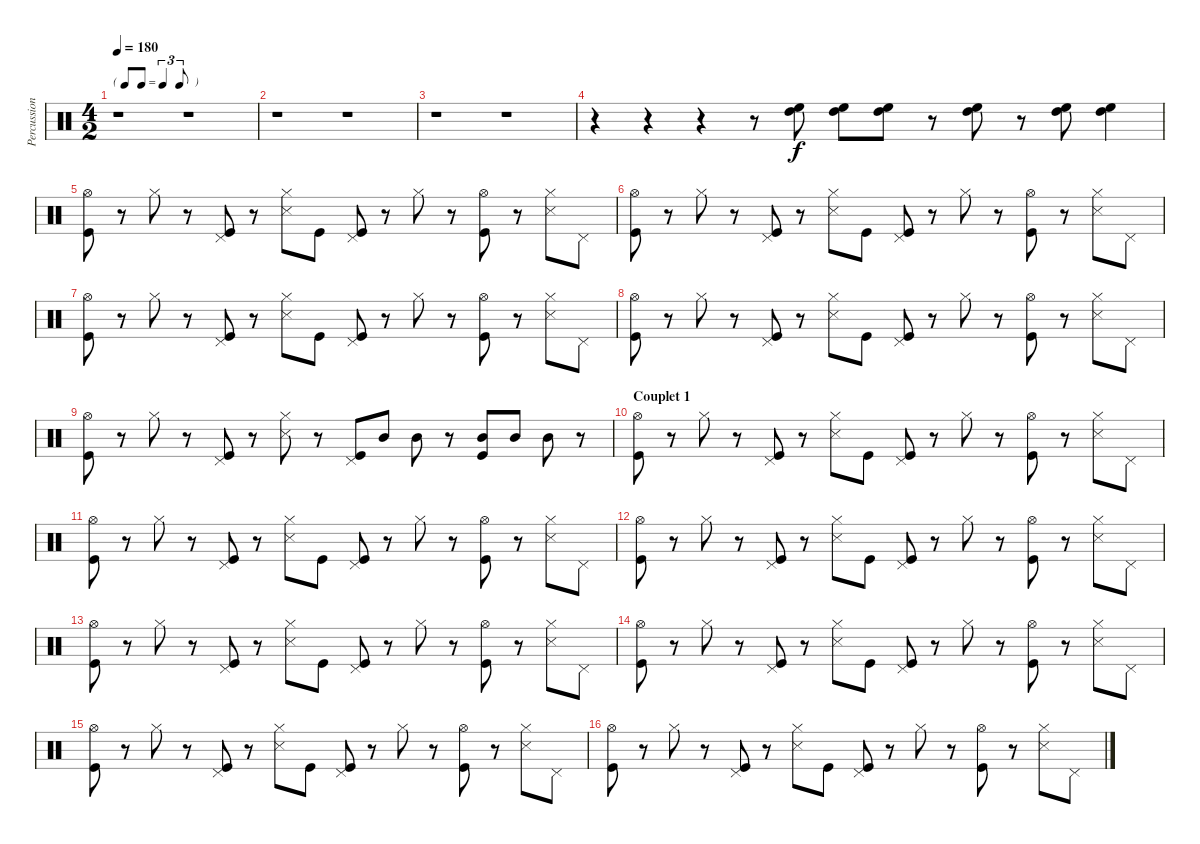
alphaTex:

\track ("Percussion" "Percussion") {instrument percussion}
\staff {score}
\articulation defaults
\ts (4 2)
\tf triplet8th
\tempo 180
\clef neutral
\ks c
r.1{dy f} r.1 |
r.1 r.1 |
r.1 r.1 |
r.4 r.4 r.4 r.8 ("High Floor Tom (hit)" "High Tom (hit)").8 ("High Floor Tom (hit)" "High Tom (hit)").8 ("High Floor Tom (hit)" "High Tom (hit)").8 r.8 ("High Floor Tom (hit)" "High Tom (hit)").8 r.8 ("High Floor Tom (hit)" "High Tom (hit)").8 ("High Floor Tom (hit)" "High Tom (hit)").4 |
("Hi-Hat (open)" "Kick (hit)").8 r.8 "Hi-Hat (closed)".8 r.8 ("Pedal Hi-Hat (hit)" "Kick (hit)").8 r.8 ("Hi-Hat (closed)" "Snare (side stick) 3").8 "Kick (hit)".8 ("Pedal Hi-Hat (hit)" "Kick (hit)").8 r.8 "Hi-Hat (closed)".8 r.8 ("Hi-Hat (open)" "Kick (hit)").8 r.8 ("Hi-Hat (closed)" "Snare (side stick) 3").8 "Pedal Hi-Hat (hit)".8 |
("Hi-Hat (open)" "Kick (hit)").8 r.8 "Hi-Hat (closed)".8 r.8 ("Pedal Hi-Hat (hit)" "Kick (hit)").8 r.8 ("Hi-Hat (closed)" "Snare (side stick) 3").8 "Kick (hit)".8 ("Pedal Hi-Hat (hit)" "Kick (hit)").8 r.8 "Hi-Hat (closed)".8 r.8 ("Hi-Hat (open)" "Kick (hit)").8 r.8 ("Hi-Hat (closed)" "Snare (side stick) 3").8 "Pedal Hi-Hat (hit)".8 |
("Hi-Hat (open)" "Kick (hit)").8 r.8 "Hi-Hat (closed)".8 r.8 ("Pedal Hi-Hat (hit)" "Kick (hit)").8 r.8 ("Hi-Hat (closed)" "Snare (side stick) 3").8 "Kick (hit)".8 ("Pedal Hi-Hat (hit)" "Kick (hit)").8 r.8 "Hi-Hat (closed)".8 r.8 ("Hi-Hat (open)" "Kick (hit)").8 r.8 ("Hi-Hat (closed)" "Snare (side stick) 3").8 "Pedal Hi-Hat (hit)".8 |
("Hi-Hat (open)" "Kick (hit)").8 r.8 "Hi-Hat (closed)".8 r.8 ("Pedal Hi-Hat (hit)" "Kick (hit)").8 r.8 ("Hi-Hat (closed)" "Snare (side stick) 3").8 "Kick (hit)".8 ("Pedal Hi-Hat (hit)" "Kick (hit)").8 r.8 "Hi-Hat (closed)".8 r.8 ("Hi-Hat (open)" "Kick (hit)").8 r.8 ("Hi-Hat (closed)" "Snare (side stick) 3").8 "Pedal Hi-Hat (hit)".8 |
("Hi-Hat (open)" "Kick (hit)").8 r.8 "Hi-Hat (closed)".8 r.8 ("Pedal Hi-Hat (hit)" "Kick (hit)").8 r.8 ("Hi-Hat (closed)" "Snare (side stick) 3").8 r.8 ("Pedal Hi-Hat (hit)" "Kick (hit)").8 "Mid Tom (hit)".8 "Mid Tom (hit)".8 r.8 ("Mid Tom (hit)" "Kick (hit)").8 "Mid Tom (hit)".8 "Mid Tom (hit)".8 r.8 |
\section ("" "Couplet 1")
("Hi-Hat (open)" "Kick (hit)").8 r.8 "Hi-Hat (closed)".8 r.8 ("Pedal Hi-Hat (hit)" "Kick (hit)").8 r.8 ("Hi-Hat (closed)" "Snare (side stick) 3").8 "Kick (hit)".8 ("Pedal Hi-Hat (hit)" "Kick (hit)").8 r.8 "Hi-Hat (closed)".8 r.8 ("Hi-Hat (open)" "Kick (hit)").8 r.8 ("Hi-Hat (closed)" "Snare (side stick) 3").8 "Pedal Hi-Hat (hit)".8 |
("Hi-Hat (open)" "Kick (hit)").8 r.8 "Hi-Hat (closed)".8 r.8 ("Pedal Hi-Hat (hit)" "Kick (hit)").8 r.8 ("Hi-Hat (closed)" "Snare (side stick) 3").8 "Kick (hit)".8 ("Pedal Hi-Hat (hit)" "Kick (hit)").8 r.8 "Hi-Hat (closed)".8 r.8 ("Hi-Hat (open)" "Kick (hit)").8 r.8 ("Hi-Hat (closed)" "Snare (side stick) 3").8 "Pedal Hi-Hat (hit)".8 |
("Hi-Hat (open)" "Kick (hit)").8 r.8 "Hi-Hat (closed)".8 r.8 ("Pedal Hi-Hat (hit)" "Kick (hit)").8 r.8 ("Hi-Hat (closed)" "Snare (side stick) 3").8 "Kick (hit)".8 ("Pedal Hi-Hat (hit)" "Kick (hit)").8 r.8 "Hi-Hat (closed)".8 r.8 ("Hi-Hat (open)" "Kick (hit)").8 r.8 ("Hi-Hat (closed)" "Snare (side stick) 3").8 "Pedal Hi-Hat (hit)".8 |
("Hi-Hat (open)" "Kick (hit)").8 r.8 "Hi-Hat (closed)".8 r.8 ("Pedal Hi-Hat (hit)" "Kick (hit)").8 r.8 ("Hi-Hat (closed)" "Snare (side stick) 3").8 "Kick (hit)".8 ("Pedal Hi-Hat (hit)" "Kick (hit)").8 r.8 "Hi-Hat (closed)".8 r.8 ("Hi-Hat (open)" "Kick (hit)").8 r.8 ("Hi-Hat (closed)" "Snare (side stick) 3").8 "Pedal Hi-Hat (hit)".8 |
("Hi-Hat (open)" "Kick (hit)").8 r.8 "Hi-Hat (closed)".8 r.8 ("Pedal Hi-Hat (hit)" "Kick (hit)").8 r.8 ("Hi-Hat (closed)" "Snare (side stick) 3").8 "Kick (hit)".8 ("Pedal Hi-Hat (hit)" "Kick (hit)").8 r.8 "Hi-Hat (closed)".8 r.8 ("Hi-Hat (open)" "Kick (hit)").8 r.8 ("Hi-Hat (closed)" "Snare (side stick) 3").8 "Pedal Hi-Hat (hit)".8 |
("Hi-Hat (open)" "Kick (hit)").8 r.8 "Hi-Hat (closed)".8 r.8 ("Pedal Hi-Hat (hit)" "Kick (hit)").8 r.8 ("Hi-Hat (closed)" "Snare (side stick) 3").8 "Kick (hit)".8 ("Pedal Hi-Hat (hit)" "Kick (hit)").8 r.8 "Hi-Hat (closed)".8 r.8 ("Hi-Hat (open)" "Kick (hit)").8 r.8 ("Hi-Hat (closed)" "Snare (side stick) 3").8 "Pedal Hi-Hat (hit)".8 |
("Hi-Hat (open)" "Kick (hit)").8 r.8 "Hi-Hat (closed)".8 r.8 ("Pedal Hi-Hat (hit)" "Kick (hit)").8 r.8 ("Hi-Hat (closed)" "Snare (side stick) 3").8 "Kick (hit)".8 ("Pedal Hi-Hat (hit)" "Kick (hit)").8 r.8 "Hi-Hat (closed)".8 r.8 ("Hi-Hat (open)" "Kick (hit)").8 r.8 ("Hi-Hat (closed)" "Snare (side stick) 3").8 "Pedal Hi-Hat (hit)".8
